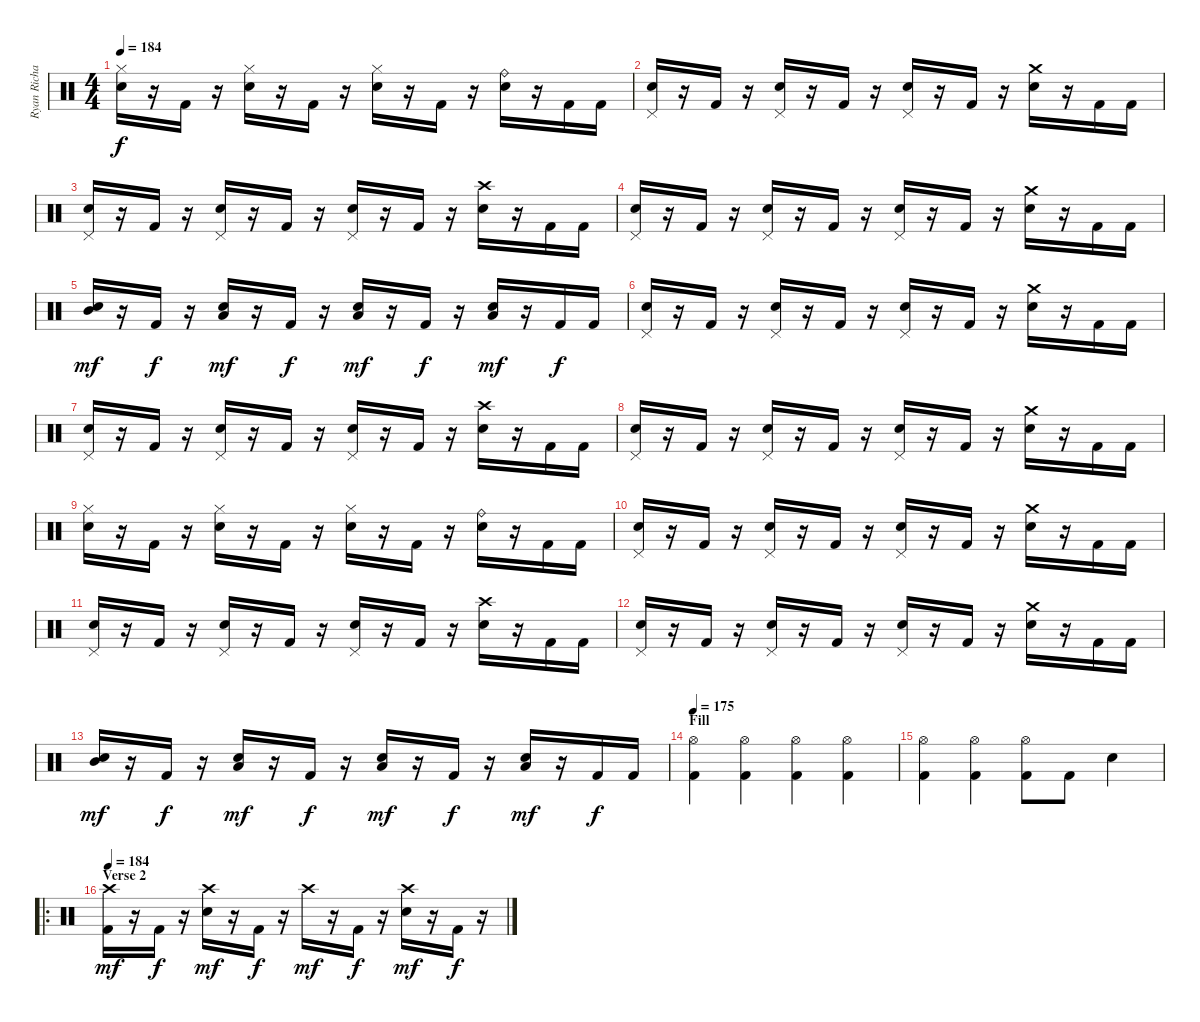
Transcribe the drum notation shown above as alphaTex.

\track ("Ryan Richards" "Ryan Richa") {instrument percussion}
\staff {score}
\articulation defaults
\ts (4 4)
\tempo 184
\clef neutral
\ks c
("Snare (hit) 2" "Hi-Hat (closed)").16{dy f} r.16 "Kick (hit) 2".16 r.16 ("Snare (hit) 2" "Hi-Hat (closed)").16 r.16 "Kick (hit) 2".16 r.16 ("Snare (hit) 2" "Hi-Hat (closed)").16 r.16 "Kick (hit) 2".16 r.16 ("Snare (hit) 2" "Ride (bell)").16 r.16 "Kick (hit) 2".16 "Kick (hit) 2".16 |
("Snare (hit) 2" "Pedal Hi-Hat (hit)").16 r.16 "Kick (hit) 2".16 r.16 ("Snare (hit) 2" "Pedal Hi-Hat (hit)").16 r.16 "Kick (hit) 2".16 r.16 ("Snare (hit) 2" "Pedal Hi-Hat (hit)").16 r.16 "Kick (hit) 2".16 r.16 ("Snare (hit) 2" "Crash medium (hit)").16 r.16 "Kick (hit) 2".16 "Kick (hit) 2".16 |
("Snare (hit) 2" "Pedal Hi-Hat (hit)").16 r.16 "Kick (hit) 2".16 r.16 ("Snare (hit) 2" "Pedal Hi-Hat (hit)").16 r.16 "Kick (hit) 2".16 r.16 ("Snare (hit) 2" "Pedal Hi-Hat (hit)").16 r.16 "Kick (hit) 2".16 r.16 ("Snare (hit) 2" "Crash high (hit)").16 r.16 "Kick (hit) 2".16 "Kick (hit) 2".16 |
("Snare (hit) 2" "Pedal Hi-Hat (hit)").16 r.16 "Kick (hit) 2".16 r.16 ("Snare (hit) 2" "Pedal Hi-Hat (hit)").16 r.16 "Kick (hit) 2".16 r.16 ("Snare (hit) 2" "Pedal Hi-Hat (hit)").16 r.16 "Kick (hit) 2".16 r.16 ("Snare (hit) 2" "Crash medium (hit)").16 r.16 "Kick (hit) 2".16 "Kick (hit) 2".16 |
("Mid Tom (hit)" "Snare (hit) 2").16{dy mf} r.16 "Kick (hit) 2".16{dy f} r.16 ("Low Tom (hit)" "Snare (hit) 2").16{dy mf} r.16 "Kick (hit) 2".16{dy f} r.16 ("Low Tom (hit)" "Snare (hit) 2").16{dy mf} r.16 "Kick (hit) 2".16{dy f} r.16 ("Low Tom (hit)" "Snare (hit) 2").16{dy mf} r.16 "Kick (hit) 2".16{dy f} "Kick (hit) 2".16 |
("Snare (hit) 2" "Pedal Hi-Hat (hit)").16 r.16 "Kick (hit) 2".16 r.16 ("Snare (hit) 2" "Pedal Hi-Hat (hit)").16 r.16 "Kick (hit) 2".16 r.16 ("Snare (hit) 2" "Pedal Hi-Hat (hit)").16 r.16 "Kick (hit) 2".16 r.16 ("Snare (hit) 2" "Crash medium (hit)").16 r.16 "Kick (hit) 2".16 "Kick (hit) 2".16 |
("Snare (hit) 2" "Pedal Hi-Hat (hit)").16 r.16 "Kick (hit) 2".16 r.16 ("Snare (hit) 2" "Pedal Hi-Hat (hit)").16 r.16 "Kick (hit) 2".16 r.16 ("Snare (hit) 2" "Pedal Hi-Hat (hit)").16 r.16 "Kick (hit) 2".16 r.16 ("Snare (hit) 2" "Crash high (hit)").16 r.16 "Kick (hit) 2".16 "Kick (hit) 2".16 |
("Snare (hit) 2" "Pedal Hi-Hat (hit)").16 r.16 "Kick (hit) 2".16 r.16 ("Snare (hit) 2" "Pedal Hi-Hat (hit)").16 r.16 "Kick (hit) 2".16 r.16 ("Snare (hit) 2" "Pedal Hi-Hat (hit)").16 r.16 "Kick (hit) 2".16 r.16 ("Snare (hit) 2" "Crash medium (hit)").16 r.16 "Kick (hit) 2".16 "Kick (hit) 2".16 |
("Snare (hit) 2" "Hi-Hat (closed)").16 r.16 "Kick (hit) 2".16 r.16 ("Snare (hit) 2" "Hi-Hat (closed)").16 r.16 "Kick (hit) 2".16 r.16 ("Snare (hit) 2" "Hi-Hat (closed)").16 r.16 "Kick (hit) 2".16 r.16 ("Snare (hit) 2" "Ride (bell)").16 r.16 "Kick (hit) 2".16 "Kick (hit) 2".16 |
("Snare (hit) 2" "Pedal Hi-Hat (hit)").16 r.16 "Kick (hit) 2".16 r.16 ("Snare (hit) 2" "Pedal Hi-Hat (hit)").16 r.16 "Kick (hit) 2".16 r.16 ("Snare (hit) 2" "Pedal Hi-Hat (hit)").16 r.16 "Kick (hit) 2".16 r.16 ("Snare (hit) 2" "Crash medium (hit)").16 r.16 "Kick (hit) 2".16 "Kick (hit) 2".16 |
("Snare (hit) 2" "Pedal Hi-Hat (hit)").16 r.16 "Kick (hit) 2".16 r.16 ("Snare (hit) 2" "Pedal Hi-Hat (hit)").16 r.16 "Kick (hit) 2".16 r.16 ("Snare (hit) 2" "Pedal Hi-Hat (hit)").16 r.16 "Kick (hit) 2".16 r.16 ("Snare (hit) 2" "Crash high (hit)").16 r.16 "Kick (hit) 2".16 "Kick (hit) 2".16 |
("Snare (hit) 2" "Pedal Hi-Hat (hit)").16 r.16 "Kick (hit) 2".16 r.16 ("Snare (hit) 2" "Pedal Hi-Hat (hit)").16 r.16 "Kick (hit) 2".16 r.16 ("Snare (hit) 2" "Pedal Hi-Hat (hit)").16 r.16 "Kick (hit) 2".16 r.16 ("Snare (hit) 2" "Crash medium (hit)").16 r.16 "Kick (hit) 2".16 "Kick (hit) 2".16 |
("Mid Tom (hit)" "Snare (hit) 2").16{dy mf} r.16 "Kick (hit) 2".16{dy f} r.16 ("Low Tom (hit)" "Snare (hit) 2").16{dy mf} r.16 "Kick (hit) 2".16{dy f} r.16 ("Low Tom (hit)" "Snare (hit) 2").16{dy mf} r.16 "Kick (hit) 2".16{dy f} r.16 ("Low Tom (hit)" "Snare (hit) 2").16{dy mf} r.16 "Kick (hit) 2".16{dy f} "Kick (hit) 2".16 |
\section ("" "Fill")
\tempo 175
("Kick (hit) 2" "Hi-Hat (open)").4 ("Kick (hit) 2" "Hi-Hat (open)").4 ("Kick (hit) 2" "Hi-Hat (open)").4 ("Kick (hit) 2" "Hi-Hat (open)").4 |
("Kick (hit) 2" "Hi-Hat (open)").4 ("Kick (hit) 2" "Hi-Hat (open)").4 ("Kick (hit) 2" "Hi-Hat (open)").8 "Kick (hit) 2".8 "Snare (hit) 2".4 |
\ro
\section ("" "Verse 2")
\tempo 184
("Kick (hit) 2" "Crash high (hit)").16{dy mf} r.16 "Kick (hit) 2".16{dy f} r.16 ("Snare (hit) 2" "Crash high (hit)").16{dy mf} r.16 "Kick (hit) 2".16{dy f} r.16 "Crash high (hit)".16{dy mf} r.16 "Kick (hit) 2".16{dy f} r.16 ("Snare (hit) 2" "Crash high (hit)").16{dy mf} r.16 "Kick (hit) 2".16{dy f} r.16
